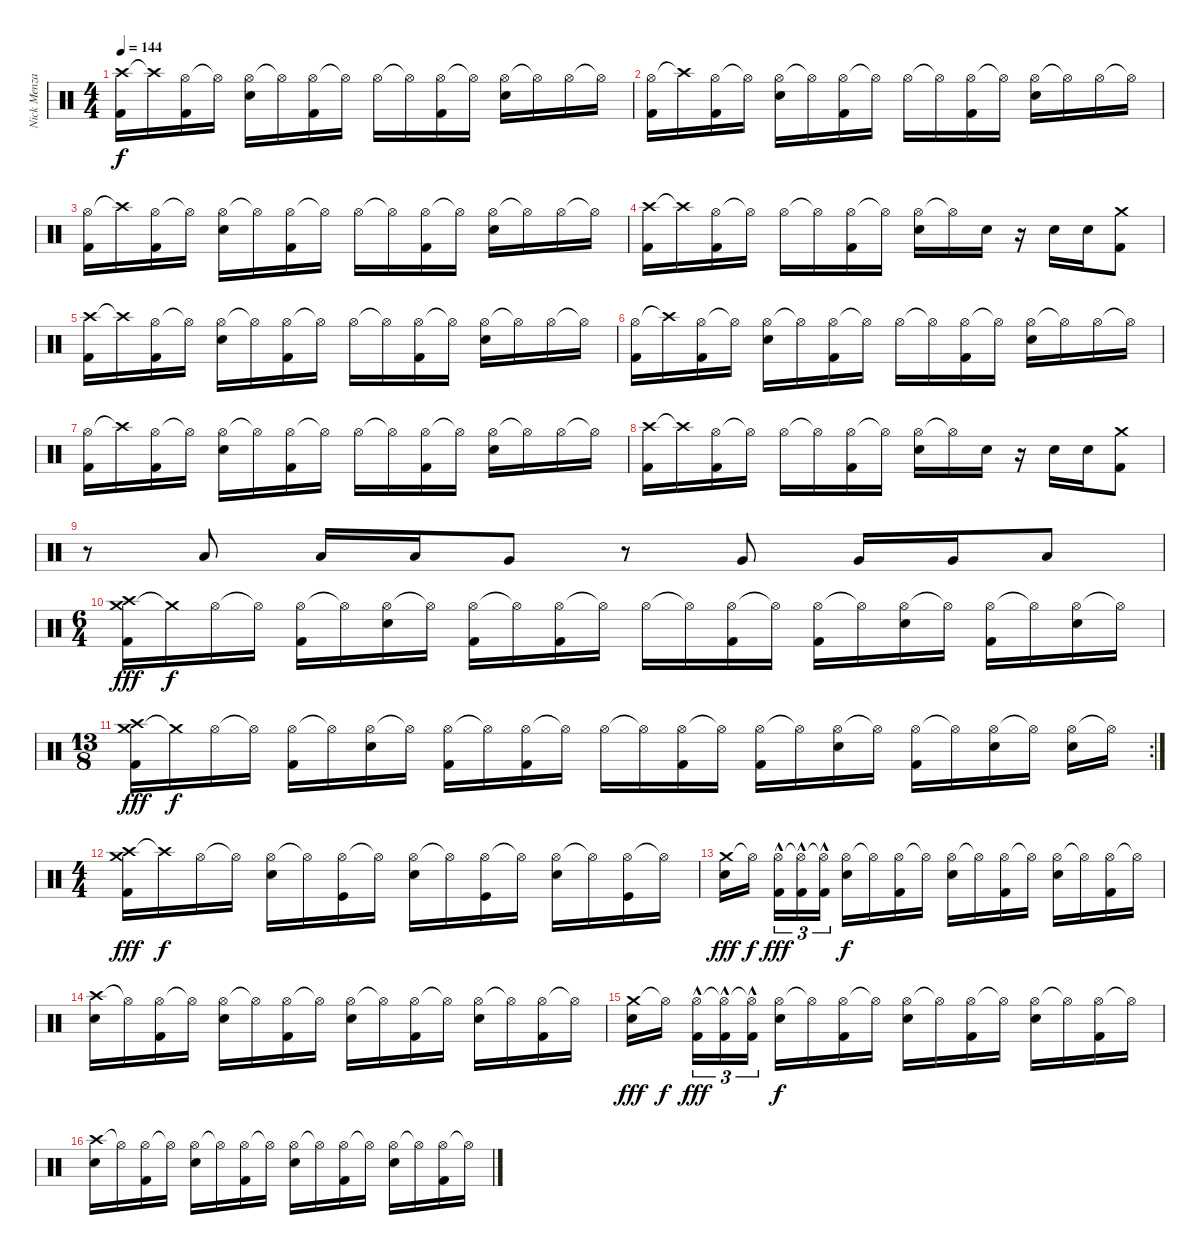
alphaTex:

\track ("Nick Menza" "Nick Menza") {instrument percussion}
\staff {score}
\articulation defaults
\ts (4 4)
\tempo 144
\clef neutral
\ks c
("Crash high (hit)" "Kick (hit) 2").16{dy f} "Crash high (hit)"{t}.16 ("Hi-Hat (open)" "Kick (hit) 2").16 "Hi-Hat (open)"{t}.16 ("Hi-Hat (open)" "Electric Snare (hit)").16 "Hi-Hat (open)"{t}.16 ("Hi-Hat (open)" "Kick (hit) 2").16 "Hi-Hat (open)"{t}.16 "Hi-Hat (open)".16 "Hi-Hat (open)"{t}.16 ("Hi-Hat (open)" "Kick (hit) 2").16 "Hi-Hat (open)"{t}.16 ("Hi-Hat (open)" "Electric Snare (hit)").16 "Hi-Hat (open)"{t}.16 "Hi-Hat (open)".16 "Hi-Hat (open)"{t}.16 |
("Hi-Hat (open)" "Kick (hit) 2").16 "Crash high (hit)"{t}.16 ("Hi-Hat (open)" "Kick (hit) 2").16 "Hi-Hat (open)"{t}.16 ("Hi-Hat (open)" "Electric Snare (hit)").16 "Hi-Hat (open)"{t}.16 ("Hi-Hat (open)" "Kick (hit) 2").16 "Hi-Hat (open)"{t}.16 "Hi-Hat (open)".16 "Hi-Hat (open)"{t}.16 ("Hi-Hat (open)" "Kick (hit) 2").16 "Hi-Hat (open)"{t}.16 ("Hi-Hat (open)" "Electric Snare (hit)").16 "Hi-Hat (open)"{t}.16 "Hi-Hat (open)".16 "Hi-Hat (open)"{t}.16 |
("Hi-Hat (open)" "Kick (hit) 2").16 "Crash high (hit)"{t}.16 ("Hi-Hat (open)" "Kick (hit) 2").16 "Hi-Hat (open)"{t}.16 ("Hi-Hat (open)" "Electric Snare (hit)").16 "Hi-Hat (open)"{t}.16 ("Hi-Hat (open)" "Kick (hit) 2").16 "Hi-Hat (open)"{t}.16 "Hi-Hat (open)".16 "Hi-Hat (open)"{t}.16 ("Hi-Hat (open)" "Kick (hit) 2").16 "Hi-Hat (open)"{t}.16 ("Hi-Hat (open)" "Electric Snare (hit)").16 "Hi-Hat (open)"{t}.16 "Hi-Hat (open)".16 "Hi-Hat (open)"{t}.16 |
("Crash high (hit)" "Kick (hit) 2").16 "Crash high (hit)"{t}.16 ("Hi-Hat (open)" "Kick (hit) 2").16 "Hi-Hat (open)"{t}.16 "Hi-Hat (open)".16 "Hi-Hat (open)"{t}.16 ("Hi-Hat (open)" "Kick (hit) 2").16 "Hi-Hat (open)"{t}.16 ("Hi-Hat (open)" "Electric Snare (hit)").16 "Hi-Hat (open)"{t}.16 "Electric Snare (hit)".16 r.16 "Electric Snare (hit)".16 "Electric Snare (hit)".16 ("Crash medium (hit)" "Kick (hit) 2").8 |
("Crash high (hit)" "Kick (hit) 2").16 "Crash high (hit)"{t}.16 ("Hi-Hat (open)" "Kick (hit) 2").16 "Hi-Hat (open)"{t}.16 ("Hi-Hat (open)" "Electric Snare (hit)").16 "Hi-Hat (open)"{t}.16 ("Hi-Hat (open)" "Kick (hit) 2").16 "Hi-Hat (open)"{t}.16 "Hi-Hat (open)".16 "Hi-Hat (open)"{t}.16 ("Hi-Hat (open)" "Kick (hit) 2").16 "Hi-Hat (open)"{t}.16 ("Hi-Hat (open)" "Electric Snare (hit)").16 "Hi-Hat (open)"{t}.16 "Hi-Hat (open)".16 "Hi-Hat (open)"{t}.16 |
("Hi-Hat (open)" "Kick (hit) 2").16 "Crash high (hit)"{t}.16 ("Hi-Hat (open)" "Kick (hit) 2").16 "Hi-Hat (open)"{t}.16 ("Hi-Hat (open)" "Electric Snare (hit)").16 "Hi-Hat (open)"{t}.16 ("Hi-Hat (open)" "Kick (hit) 2").16 "Hi-Hat (open)"{t}.16 "Hi-Hat (open)".16 "Hi-Hat (open)"{t}.16 ("Hi-Hat (open)" "Kick (hit) 2").16 "Hi-Hat (open)"{t}.16 ("Hi-Hat (open)" "Electric Snare (hit)").16 "Hi-Hat (open)"{t}.16 "Hi-Hat (open)".16 "Hi-Hat (open)"{t}.16 |
("Hi-Hat (open)" "Kick (hit) 2").16 "Crash high (hit)"{t}.16 ("Hi-Hat (open)" "Kick (hit) 2").16 "Hi-Hat (open)"{t}.16 ("Hi-Hat (open)" "Electric Snare (hit)").16 "Hi-Hat (open)"{t}.16 ("Hi-Hat (open)" "Kick (hit) 2").16 "Hi-Hat (open)"{t}.16 "Hi-Hat (open)".16 "Hi-Hat (open)"{t}.16 ("Hi-Hat (open)" "Kick (hit) 2").16 "Hi-Hat (open)"{t}.16 ("Hi-Hat (open)" "Electric Snare (hit)").16 "Hi-Hat (open)"{t}.16 "Hi-Hat (open)".16 "Hi-Hat (open)"{t}.16 |
("Crash high (hit)" "Kick (hit) 2").16 "Crash high (hit)"{t}.16 ("Hi-Hat (open)" "Kick (hit) 2").16 "Hi-Hat (open)"{t}.16 "Hi-Hat (open)".16 "Hi-Hat (open)"{t}.16 ("Hi-Hat (open)" "Kick (hit) 2").16 "Hi-Hat (open)"{t}.16 ("Hi-Hat (open)" "Electric Snare (hit)").16 "Hi-Hat (open)"{t}.16 "Electric Snare (hit)".16 r.16 "Electric Snare (hit)".16 "Electric Snare (hit)".16 ("Crash medium (hit)" "Kick (hit) 2").8 |
r.8 "Low Tom (hit)".8 "Low Tom (hit)".16 "Low Tom (hit)".16 "Very Low Tom (hit)".8 r.8 "Very Low Tom (hit)".8 "Very Low Tom (hit)".16 "Very Low Tom (hit)".16 "Low Floor Tom (hit)".8 |
\ts (6 4)
("Crash medium (hit)" "Crash high (hit)" "Kick (hit) 2").16{dy fff} "Crash medium (hit)"{t}.16{dy f} "Hi-Hat (open)".16 "Hi-Hat (open)"{t}.16 ("Hi-Hat (open)" "Kick (hit) 2").16 "Hi-Hat (open)"{t}.16 ("Hi-Hat (open)" "Electric Snare (hit)").16 "Hi-Hat (open)"{t}.16 ("Hi-Hat (open)" "Kick (hit) 2").16 "Hi-Hat (open)"{t}.16 ("Hi-Hat (open)" "Kick (hit) 2").16 "Hi-Hat (open)"{t}.16 "Hi-Hat (open)".16 "Hi-Hat (open)"{t}.16 ("Hi-Hat (open)" "Kick (hit) 2").16 "Hi-Hat (open)"{t}.16 ("Hi-Hat (open)" "Kick (hit) 2").16 "Hi-Hat (open)"{t}.16 ("Hi-Hat (open)" "Electric Snare (hit)").16 "Hi-Hat (open)"{t}.16 ("Hi-Hat (open)" "Kick (hit) 2").16 "Hi-Hat (open)"{t}.16 ("Hi-Hat (open)" "Electric Snare (hit)").16 "Hi-Hat (open)"{t}.16 |
\rc 2
\ts (13 8)
("Crash medium (hit)" "Crash high (hit)" "Kick (hit) 2").16{dy fff} "Crash medium (hit)"{t}.16{dy f} "Hi-Hat (open)".16 "Hi-Hat (open)"{t}.16 ("Hi-Hat (open)" "Kick (hit) 2").16 "Hi-Hat (open)"{t}.16 ("Hi-Hat (open)" "Electric Snare (hit)").16 "Hi-Hat (open)"{t}.16 ("Hi-Hat (open)" "Kick (hit) 2").16 "Hi-Hat (open)"{t}.16 ("Hi-Hat (open)" "Kick (hit) 2").16 "Hi-Hat (open)"{t}.16 "Hi-Hat (open)".16 "Hi-Hat (open)"{t}.16 ("Hi-Hat (open)" "Kick (hit) 2").16 "Hi-Hat (open)"{t}.16 ("Hi-Hat (open)" "Kick (hit) 2").16 "Hi-Hat (open)"{t}.16 ("Hi-Hat (open)" "Electric Snare (hit)").16 "Hi-Hat (open)"{t}.16 ("Hi-Hat (open)" "Kick (hit) 2").16 "Hi-Hat (open)"{t}.16 ("Hi-Hat (open)" "Electric Snare (hit)").16 "Hi-Hat (open)"{t}.16 ("Hi-Hat (open)" "Electric Snare (hit)").16 "Hi-Hat (open)"{t}.16 |
\ts (4 4)
("Crash high (hit)" "Crash medium (hit)" "Kick (hit) 2").16{dy fff} "Crash high (hit)"{t}.16{dy f} "Hi-Hat (open)".16 "Hi-Hat (open)"{t}.16 ("Hi-Hat (open)" "Electric Snare (hit)").16 "Hi-Hat (open)"{t}.16 ("Hi-Hat (open)" "Kick (hit)").16 "Hi-Hat (open)"{t}.16 ("Hi-Hat (open)" "Electric Snare (hit)").16 "Hi-Hat (open)"{t}.16 ("Hi-Hat (open)" "Kick (hit)").16 "Hi-Hat (open)"{t}.16 ("Hi-Hat (open)" "Electric Snare (hit)").16 "Hi-Hat (open)"{t}.16 ("Hi-Hat (open)" "Kick (hit)").16 "Hi-Hat (open)"{t}.16 |
("Crash medium (hit)" "Electric Snare (hit)").16{dy fff} "Hi-Hat (open)"{t}.16{dy f beam splitsecondary} ("Hi-Hat (open)" "Kick (hit) 2"{hac}).16{tu (3 2) dy fff} ("Hi-Hat (open)"{t} "Kick (hit) 2"{hac}).16{tu (3 2)} ("Hi-Hat (open)"{t} "Kick (hit) 2"{hac}).16{tu (3 2)} ("Hi-Hat (open)" "Electric Snare (hit)").16{dy f} "Hi-Hat (open)"{t}.16 ("Hi-Hat (open)" "Kick (hit) 2").16 "Hi-Hat (open)"{t}.16 ("Hi-Hat (open)" "Electric Snare (hit)").16 "Hi-Hat (open)"{t}.16 ("Hi-Hat (open)" "Kick (hit) 2").16 "Hi-Hat (open)"{t}.16 ("Hi-Hat (open)" "Electric Snare (hit)").16 "Hi-Hat (open)"{t}.16 ("Hi-Hat (open)" "Kick (hit) 2").16 "Hi-Hat (open)"{t}.16 |
("Crash high (hit)" "Electric Snare (hit)").16 "Hi-Hat (open)"{t}.16 ("Hi-Hat (open)" "Kick (hit) 2").16 "Hi-Hat (open)"{t}.16 ("Hi-Hat (open)" "Electric Snare (hit)").16 "Hi-Hat (open)"{t}.16 ("Hi-Hat (open)" "Kick (hit) 2").16 "Hi-Hat (open)"{t}.16 ("Hi-Hat (open)" "Electric Snare (hit)").16 "Hi-Hat (open)"{t}.16 ("Hi-Hat (open)" "Kick (hit) 2").16 "Hi-Hat (open)"{t}.16 ("Hi-Hat (open)" "Electric Snare (hit)").16 "Hi-Hat (open)"{t}.16 ("Hi-Hat (open)" "Kick (hit) 2").16 "Hi-Hat (open)"{t}.16 |
("Crash medium (hit)" "Electric Snare (hit)").16{dy fff} "Hi-Hat (open)"{t}.16{dy f beam splitsecondary} ("Hi-Hat (open)" "Kick (hit) 2"{hac}).16{tu (3 2) dy fff} ("Hi-Hat (open)"{t} "Kick (hit) 2"{hac}).16{tu (3 2)} ("Hi-Hat (open)"{t} "Kick (hit) 2"{hac}).16{tu (3 2)} ("Hi-Hat (open)" "Electric Snare (hit)").16{dy f} "Hi-Hat (open)"{t}.16 ("Hi-Hat (open)" "Kick (hit) 2").16 "Hi-Hat (open)"{t}.16 ("Hi-Hat (open)" "Electric Snare (hit)").16 "Hi-Hat (open)"{t}.16 ("Hi-Hat (open)" "Kick (hit) 2").16 "Hi-Hat (open)"{t}.16 ("Hi-Hat (open)" "Electric Snare (hit)").16 "Hi-Hat (open)"{t}.16 ("Hi-Hat (open)" "Kick (hit) 2").16 "Hi-Hat (open)"{t}.16 |
("Crash high (hit)" "Electric Snare (hit)").16 "Hi-Hat (open)"{t}.16 ("Hi-Hat (open)" "Kick (hit) 2").16 "Hi-Hat (open)"{t}.16 ("Hi-Hat (open)" "Electric Snare (hit)").16 "Hi-Hat (open)"{t}.16 ("Hi-Hat (open)" "Kick (hit) 2").16 "Hi-Hat (open)"{t}.16 ("Hi-Hat (open)" "Electric Snare (hit)").16 "Hi-Hat (open)"{t}.16 ("Hi-Hat (open)" "Kick (hit) 2").16 "Hi-Hat (open)"{t}.16 ("Hi-Hat (open)" "Electric Snare (hit)").16 "Hi-Hat (open)"{t}.16 ("Hi-Hat (open)" "Kick (hit) 2").16 "Hi-Hat (open)"{t}.16
